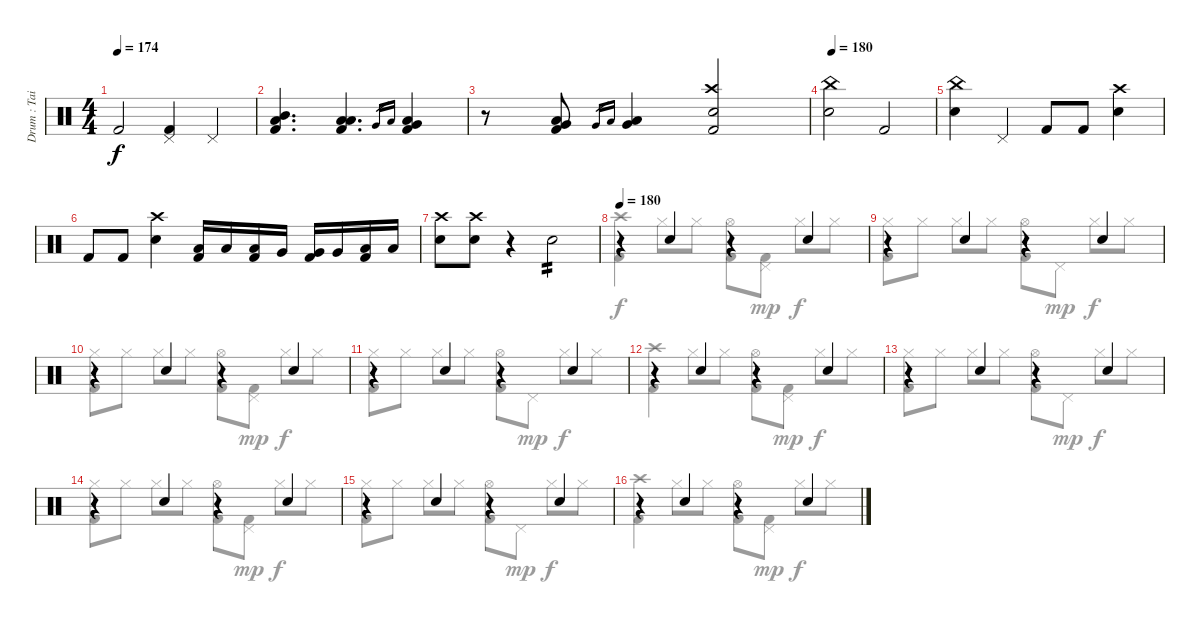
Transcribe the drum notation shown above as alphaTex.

\track ("Drum : Tainaka Ritsu" "Drum : Tai") {instrument percussion}
\staff {score}
\articulation defaults
\voice
\ts (4 4)
\tempo 174
\clef neutral
\ks c "Kick (hit) 2".2{dy f}
("Pedal Hi-Hat (hit)" "Kick (hit) 2").4 "Pedal Hi-Hat (hit)".4 |
("Mid Tom (hit)" "Low Floor Tom (hit)" "Kick (hit) 2").4{d} ("Low Tom (hit)" "Low Floor Tom (hit)" "Kick (hit) 2").4{d} "Very Low Tom (hit)".16{gr} "Low Tom (hit)"{sl}.16{gr} ("Very Low Tom (hit)" "Low Tom (hit)" "Kick (hit) 2").4 |
r.8 ("Very Low Tom (hit)" "Low Floor Tom (hit)" "Kick (hit) 2").8 "Very Low Tom (hit)".16{gr} "Low Floor Tom (hit)".16{gr} ("Very Low Tom (hit)" "Low Floor Tom (hit)").4 ("Crash high (hit)" "Snare (hit) 2" "Kick (hit) 2").2 |
\tempo 180
("China (hit)" "Snare (hit) 2").2 "Kick (hit) 2".2 |
("China (hit)" "Snare (hit) 2").4 "Pedal Hi-Hat (hit)".4 "Kick (hit) 2".8 "Kick (hit) 2".8 ("Crash high (hit)" "Snare (hit) 2").4 |
"Kick (hit) 2".8 "Kick (hit) 2".8 ("Crash high (hit)" "Snare (hit) 2").4 ("Low Tom (hit)" "Kick (hit) 2").16 "Low Tom (hit)".16 ("Low Tom (hit)" "Kick (hit) 2").16 "Very Low Tom (hit)".16 ("Very Low Tom (hit)" "Kick (hit) 2").16 "Very Low Tom (hit)".16 ("Low Floor Tom (hit)" "Kick (hit) 2").16 "Low Floor Tom (hit)".16 |
("Crash high (hit)" "Snare (hit) 2").8 ("Crash high (hit)" "Snare (hit) 2").8 r.4 "Snare (hit) 2".2{tp 2} |
\tempo 180
r.4 "Snare (hit) 2".4 r.4 "Snare (hit) 2".4 |
r.4 "Snare (hit) 2".4 r.4 "Snare (hit) 2".4 |
r.4 "Snare (hit) 2".4 r.4 "Snare (hit) 2".4 |
r.4 "Snare (hit) 2".4 r.4 "Snare (hit) 2".4 |
r.4 "Snare (hit) 2".4 r.4 "Snare (hit) 2".4 |
r.4 "Snare (hit) 2".4 r.4 "Snare (hit) 2".4 |
r.4 "Snare (hit) 2".4 r.4 "Snare (hit) 2".4 |
r.4 "Snare (hit) 2".4 r.4 "Snare (hit) 2".4 |
r.4 "Snare (hit) 2".4 r.4 "Snare (hit) 2".4
\voice
\clef neutral
\ottava regular
\simile none
\ks c
|
|
|
|
|
|
|
("Crash high (hit)" "Kick (hit) 2").4 "Hi-Hat (closed)".8 "Hi-Hat (closed)".8 ("Hi-Hat (open)" "Kick (hit) 2").8 ("Pedal Hi-Hat (hit)" "Kick (hit) 2").8{dy mp} "Hi-Hat (closed)".8{dy f} "Hi-Hat (closed)".8 |
("Hi-Hat (closed)" "Kick (hit) 2").8 "Hi-Hat (closed)".8 "Hi-Hat (closed)".8 "Hi-Hat (closed)".8 ("Hi-Hat (open)" "Kick (hit) 2").8 "Pedal Hi-Hat (hit)".8{dy mp} "Hi-Hat (closed)".8{dy f} "Hi-Hat (closed)".8 |
("Hi-Hat (closed)" "Kick (hit) 2").8 "Hi-Hat (closed)".8 "Hi-Hat (closed)".8 "Hi-Hat (closed)".8 ("Hi-Hat (open)" "Kick (hit) 2").8 ("Pedal Hi-Hat (hit)" "Kick (hit) 2").8{dy mp} "Hi-Hat (closed)".8{dy f} "Hi-Hat (closed)".8 |
("Hi-Hat (closed)" "Kick (hit) 2").8 "Hi-Hat (closed)".8 "Hi-Hat (closed)".8 "Hi-Hat (closed)".8 ("Hi-Hat (open)" "Kick (hit) 2").8 "Pedal Hi-Hat (hit)".8{dy mp} "Hi-Hat (closed)".8{dy f} "Hi-Hat (closed)".8 |
("Crash high (hit)" "Kick (hit) 2").4 "Hi-Hat (closed)".8 "Hi-Hat (closed)".8 ("Hi-Hat (open)" "Kick (hit) 2").8 ("Pedal Hi-Hat (hit)" "Kick (hit) 2").8{dy mp} "Hi-Hat (closed)".8{dy f} "Hi-Hat (closed)".8 |
("Hi-Hat (closed)" "Kick (hit) 2").8 "Hi-Hat (closed)".8 "Hi-Hat (closed)".8 "Hi-Hat (closed)".8 ("Hi-Hat (open)" "Kick (hit) 2").8 "Pedal Hi-Hat (hit)".8{dy mp} "Hi-Hat (closed)".8{dy f} "Hi-Hat (closed)".8 |
("Hi-Hat (closed)" "Kick (hit) 2").8 "Hi-Hat (closed)".8 "Hi-Hat (closed)".8 "Hi-Hat (closed)".8 ("Hi-Hat (open)" "Kick (hit) 2").8 ("Pedal Hi-Hat (hit)" "Kick (hit) 2").8{dy mp} "Hi-Hat (closed)".8{dy f} "Hi-Hat (closed)".8 |
("Hi-Hat (closed)" "Kick (hit) 2").8 "Hi-Hat (closed)".8 "Hi-Hat (closed)".8 "Hi-Hat (closed)".8 ("Hi-Hat (open)" "Kick (hit) 2").8 "Pedal Hi-Hat (hit)".8{dy mp} "Hi-Hat (closed)".8{dy f} "Hi-Hat (closed)".8 |
("Crash high (hit)" "Kick (hit) 2").4 "Hi-Hat (closed)".8 "Hi-Hat (closed)".8 ("Hi-Hat (open)" "Kick (hit) 2").8 ("Pedal Hi-Hat (hit)" "Kick (hit) 2").8{dy mp} "Hi-Hat (closed)".8{dy f} "Hi-Hat (closed)".8
